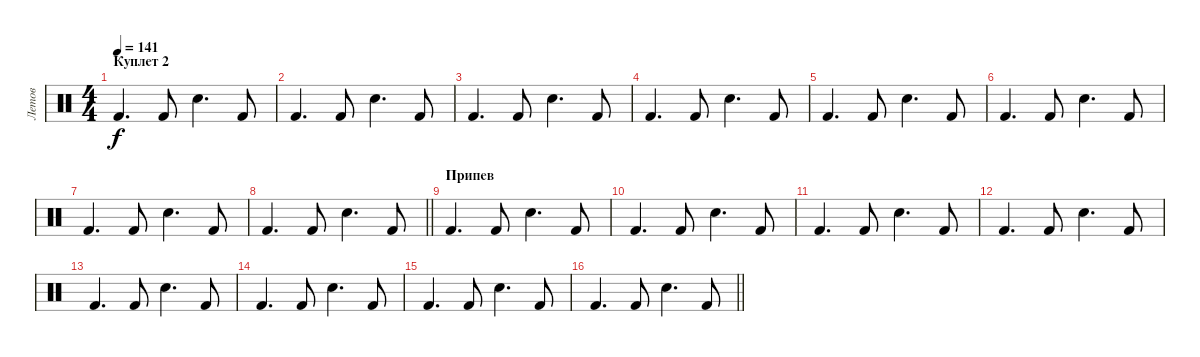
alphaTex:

\track ("Летов" "Летов") {instrument percussion}
\staff {score}
\articulation defaults
\ts (4 4)
\section ("" "Куплет 2")
\tempo 141
\clef neutral
\ks c "Kick (hit) 2".4{d dy f} "Kick (hit) 2".8 "Electric Snare (hit)".4{d} "Kick (hit) 2".8
|
"Kick (hit) 2".4{d} "Kick (hit) 2".8 "Electric Snare (hit)".4{d} "Kick (hit) 2".8 |
"Kick (hit) 2".4{d} "Kick (hit) 2".8 "Electric Snare (hit)".4{d} "Kick (hit) 2".8 |
"Kick (hit) 2".4{d} "Kick (hit) 2".8 "Electric Snare (hit)".4{d} "Kick (hit) 2".8 |
"Kick (hit) 2".4{d} "Kick (hit) 2".8 "Electric Snare (hit)".4{d} "Kick (hit) 2".8 |
"Kick (hit) 2".4{d} "Kick (hit) 2".8 "Electric Snare (hit)".4{d} "Kick (hit) 2".8 |
"Kick (hit) 2".4{d} "Kick (hit) 2".8 "Electric Snare (hit)".4{d} "Kick (hit) 2".8 |
\barLineRight lightlight "Kick (hit) 2".4{d} "Kick (hit) 2".8 "Electric Snare (hit)".4{d} "Kick (hit) 2".8
|
\section ("" "Припев")
"Kick (hit) 2".4{d} "Kick (hit) 2".8 "Electric Snare (hit)".4{d} "Kick (hit) 2".8 |
"Kick (hit) 2".4{d} "Kick (hit) 2".8 "Electric Snare (hit)".4{d} "Kick (hit) 2".8 |
"Kick (hit) 2".4{d} "Kick (hit) 2".8 "Electric Snare (hit)".4{d} "Kick (hit) 2".8 |
"Kick (hit) 2".4{d} "Kick (hit) 2".8 "Electric Snare (hit)".4{d} "Kick (hit) 2".8 |
"Kick (hit) 2".4{d} "Kick (hit) 2".8 "Electric Snare (hit)".4{d} "Kick (hit) 2".8 |
"Kick (hit) 2".4{d} "Kick (hit) 2".8 "Electric Snare (hit)".4{d} "Kick (hit) 2".8 |
"Kick (hit) 2".4{d} "Kick (hit) 2".8 "Electric Snare (hit)".4{d} "Kick (hit) 2".8 |
\barLineRight lightlight "Kick (hit) 2".4{d} "Kick (hit) 2".8 "Electric Snare (hit)".4{d} "Kick (hit) 2".8
